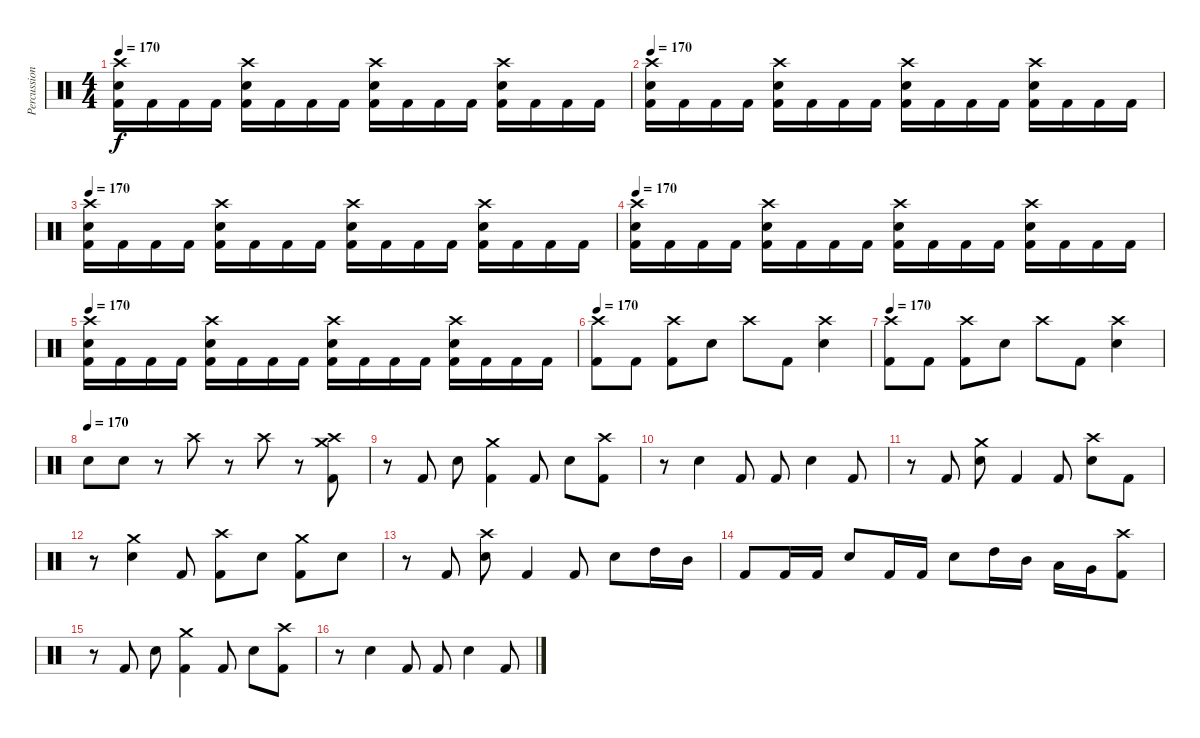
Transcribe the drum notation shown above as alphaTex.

\track ("Percussion" "Percussion") {instrument percussion}
\staff {score}
\articulation defaults
\ts (4 4)
\tempo 170
\clef neutral
\ks c
("Crash high (hit)" "Electric Snare (hit)" "Kick (hit) 2").16{dy f} "Kick (hit) 2".16 "Kick (hit) 2".16 "Kick (hit) 2".16 ("Crash high (hit)" "Electric Snare (hit)" "Kick (hit) 2").16 "Kick (hit) 2".16 "Kick (hit) 2".16 "Kick (hit) 2".16 ("Crash high (hit)" "Electric Snare (hit)" "Kick (hit) 2").16 "Kick (hit) 2".16 "Kick (hit) 2".16 "Kick (hit) 2".16 ("Crash high (hit)" "Electric Snare (hit)" "Kick (hit) 2").16 "Kick (hit) 2".16 "Kick (hit) 2".16 "Kick (hit) 2".16 |
\tempo 170
("Crash high (hit)" "Electric Snare (hit)" "Kick (hit) 2").16 "Kick (hit) 2".16 "Kick (hit) 2".16 "Kick (hit) 2".16 ("Crash high (hit)" "Electric Snare (hit)" "Kick (hit) 2").16 "Kick (hit) 2".16 "Kick (hit) 2".16 "Kick (hit) 2".16 ("Crash high (hit)" "Electric Snare (hit)" "Kick (hit) 2").16 "Kick (hit) 2".16 "Kick (hit) 2".16 "Kick (hit) 2".16 ("Crash high (hit)" "Electric Snare (hit)" "Kick (hit) 2").16 "Kick (hit) 2".16 "Kick (hit) 2".16 "Kick (hit) 2".16 |
\tempo 170
("Crash high (hit)" "Electric Snare (hit)" "Kick (hit) 2").16 "Kick (hit) 2".16 "Kick (hit) 2".16 "Kick (hit) 2".16 ("Crash high (hit)" "Electric Snare (hit)" "Kick (hit) 2").16 "Kick (hit) 2".16 "Kick (hit) 2".16 "Kick (hit) 2".16 ("Crash high (hit)" "Electric Snare (hit)" "Kick (hit) 2").16 "Kick (hit) 2".16 "Kick (hit) 2".16 "Kick (hit) 2".16 ("Crash high (hit)" "Electric Snare (hit)" "Kick (hit) 2").16 "Kick (hit) 2".16 "Kick (hit) 2".16 "Kick (hit) 2".16 |
\tempo 170
("Crash high (hit)" "Electric Snare (hit)" "Kick (hit) 2").16 "Kick (hit) 2".16 "Kick (hit) 2".16 "Kick (hit) 2".16 ("Crash high (hit)" "Electric Snare (hit)" "Kick (hit) 2").16 "Kick (hit) 2".16 "Kick (hit) 2".16 "Kick (hit) 2".16 ("Crash high (hit)" "Electric Snare (hit)" "Kick (hit) 2").16 "Kick (hit) 2".16 "Kick (hit) 2".16 "Kick (hit) 2".16 ("Crash high (hit)" "Electric Snare (hit)" "Kick (hit) 2").16 "Kick (hit) 2".16 "Kick (hit) 2".16 "Kick (hit) 2".16 |
\tempo 170
("Crash high (hit)" "Electric Snare (hit)" "Kick (hit) 2").16 "Kick (hit) 2".16 "Kick (hit) 2".16 "Kick (hit) 2".16 ("Crash high (hit)" "Electric Snare (hit)" "Kick (hit) 2").16 "Kick (hit) 2".16 "Kick (hit) 2".16 "Kick (hit) 2".16 ("Crash high (hit)" "Electric Snare (hit)" "Kick (hit) 2").16 "Kick (hit) 2".16 "Kick (hit) 2".16 "Kick (hit) 2".16 ("Crash high (hit)" "Electric Snare (hit)" "Kick (hit) 2").16 "Kick (hit) 2".16 "Kick (hit) 2".16 "Kick (hit) 2".16 |
\tempo 170
("Crash high (hit)" "Kick (hit) 2").8 "Kick (hit) 2".8 ("Crash high (hit)" "Kick (hit) 2").8 "Electric Snare (hit)".8 "Crash high (hit)".8 "Kick (hit) 2".8 ("Crash high (hit)" "Electric Snare (hit)").4 |
\tempo 170
("Crash high (hit)" "Kick (hit) 2").8 "Kick (hit) 2".8 ("Crash high (hit)" "Kick (hit) 2").8 "Electric Snare (hit)".8 "Crash high (hit)".8 "Kick (hit) 2".8 ("Crash high (hit)" "Electric Snare (hit)").4 |
\tempo (170)
"Electric Snare (hit)".8 "Electric Snare (hit)".8 r.8 "Crash high (hit)".8 r.8 "Crash high (hit)".8 r.8 ("Crash high (hit)" "Crash medium (hit)" "Kick (hit) 2").8 |
r.8 "Kick (hit) 2".8 "Electric Snare (hit)".8 ("Crash medium (hit)" "Kick (hit) 2").4 "Kick (hit) 2".8 "Electric Snare (hit)".8 ("Crash high (hit)" "Kick (hit) 2").8 |
r.8 "Electric Snare (hit)".4 "Kick (hit) 2".8 "Kick (hit) 2".8 "Electric Snare (hit)".4 "Kick (hit) 2".8 |
r.8 "Kick (hit) 2".8 ("Crash medium (hit)" "Electric Snare (hit)").8 "Kick (hit) 2".4 "Kick (hit) 2".8 ("Crash high (hit)" "Electric Snare (hit)").8 "Kick (hit) 2".8 |
r.8 ("Crash medium (hit)" "Electric Snare (hit)").4 "Kick (hit) 2".8 ("Crash high (hit)" "Kick (hit) 2").8 "Electric Snare (hit)".8 ("Crash medium (hit)" "Kick (hit) 2").8 "Electric Snare (hit)".8 |
r.8 "Kick (hit) 2".8 ("Crash high (hit)" "Electric Snare (hit)").8 "Kick (hit) 2".4 "Kick (hit) 2".8 "Electric Snare (hit)".8 "High Tom (hit)".16 "Mid Tom (hit)".16 |
"Kick (hit) 2".8 "Kick (hit) 2".16 "Kick (hit) 2".16 "Electric Snare (hit)".8 "Kick (hit) 2".16 "Kick (hit) 2".16 "Electric Snare (hit)".8 "High Tom (hit)".16 "Mid Tom (hit)".16 "Low Tom (hit)".16 "Very Low Tom (hit)".16 ("Crash high (hit)" "Kick (hit) 2").8 |
r.8 "Kick (hit) 2".8 "Electric Snare (hit)".8 ("Crash medium (hit)" "Kick (hit) 2").4 "Kick (hit) 2".8 "Electric Snare (hit)".8 ("Crash high (hit)" "Kick (hit) 2").8 |
r.8 "Electric Snare (hit)".4 "Kick (hit) 2".8 "Kick (hit) 2".8 "Electric Snare (hit)".4 "Kick (hit) 2".8
